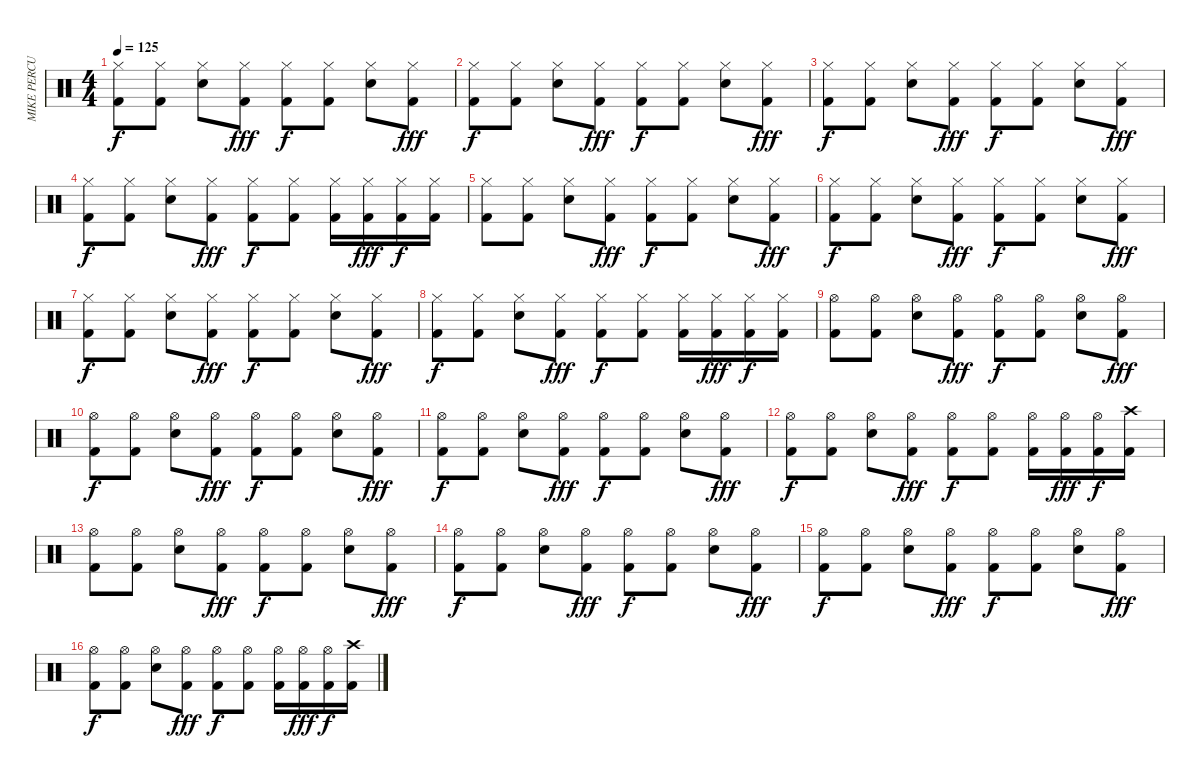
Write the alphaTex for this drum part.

\track ("MIKE PERCUSSIONS" "MIKE PERCU") {instrument percussion}
\staff {score}
\articulation defaults
\ts (4 4)
\tempo 125
\clef neutral
\ks c
("Hi-Hat (closed)" "Kick (hit) 2").8{dy f} ("Hi-Hat (closed)" "Kick (hit) 2").8 ("Hi-Hat (closed)" "Electric Snare (hit)").8 ("Hi-Hat (closed)" "Kick (hit) 2").8{dy fff} ("Hi-Hat (closed)" "Kick (hit) 2").8{dy f} ("Hi-Hat (closed)" "Kick (hit) 2").8 ("Hi-Hat (closed)" "Electric Snare (hit)").8 ("Hi-Hat (closed)" "Kick (hit) 2").8{dy fff} |
("Hi-Hat (closed)" "Kick (hit) 2").8{dy f} ("Hi-Hat (closed)" "Kick (hit) 2").8 ("Hi-Hat (closed)" "Electric Snare (hit)").8 ("Hi-Hat (closed)" "Kick (hit) 2").8{dy fff} ("Hi-Hat (closed)" "Kick (hit) 2").8{dy f} ("Hi-Hat (closed)" "Kick (hit) 2").8 ("Hi-Hat (closed)" "Electric Snare (hit)").8 ("Hi-Hat (closed)" "Kick (hit) 2").8{dy fff} |
("Hi-Hat (closed)" "Kick (hit) 2").8{dy f} ("Hi-Hat (closed)" "Kick (hit) 2").8 ("Hi-Hat (closed)" "Electric Snare (hit)").8 ("Hi-Hat (closed)" "Kick (hit) 2").8{dy fff} ("Hi-Hat (closed)" "Kick (hit) 2").8{dy f} ("Hi-Hat (closed)" "Kick (hit) 2").8 ("Hi-Hat (closed)" "Electric Snare (hit)").8 ("Hi-Hat (closed)" "Kick (hit) 2").8{dy fff} |
("Hi-Hat (closed)" "Kick (hit) 2").8{dy f} ("Hi-Hat (closed)" "Kick (hit) 2").8 ("Hi-Hat (closed)" "Electric Snare (hit)").8 ("Hi-Hat (closed)" "Kick (hit) 2").8{dy fff} ("Hi-Hat (closed)" "Kick (hit) 2").8{dy f} ("Hi-Hat (closed)" "Kick (hit) 2").8 ("Hi-Hat (closed)" "Kick (hit) 2").16 ("Hi-Hat (closed)" "Kick (hit) 2").16{dy fff} ("Hi-Hat (closed)" "Kick (hit) 2").16{dy f} ("Hi-Hat (closed)" "Kick (hit) 2").16 |
("Hi-Hat (closed)" "Kick (hit) 2").8 ("Hi-Hat (closed)" "Kick (hit) 2").8 ("Hi-Hat (closed)" "Electric Snare (hit)").8 ("Hi-Hat (closed)" "Kick (hit) 2").8{dy fff} ("Hi-Hat (closed)" "Kick (hit) 2").8{dy f} ("Hi-Hat (closed)" "Kick (hit) 2").8 ("Hi-Hat (closed)" "Electric Snare (hit)").8 ("Hi-Hat (closed)" "Kick (hit) 2").8{dy fff} |
("Hi-Hat (closed)" "Kick (hit) 2").8{dy f} ("Hi-Hat (closed)" "Kick (hit) 2").8 ("Hi-Hat (closed)" "Electric Snare (hit)").8 ("Hi-Hat (closed)" "Kick (hit) 2").8{dy fff} ("Hi-Hat (closed)" "Kick (hit) 2").8{dy f} ("Hi-Hat (closed)" "Kick (hit) 2").8 ("Hi-Hat (closed)" "Electric Snare (hit)").8 ("Hi-Hat (closed)" "Kick (hit) 2").8{dy fff} |
("Hi-Hat (closed)" "Kick (hit) 2").8{dy f} ("Hi-Hat (closed)" "Kick (hit) 2").8 ("Hi-Hat (closed)" "Electric Snare (hit)").8 ("Hi-Hat (closed)" "Kick (hit) 2").8{dy fff} ("Hi-Hat (closed)" "Kick (hit) 2").8{dy f} ("Hi-Hat (closed)" "Kick (hit) 2").8 ("Hi-Hat (closed)" "Electric Snare (hit)").8 ("Hi-Hat (closed)" "Kick (hit) 2").8{dy fff} |
("Hi-Hat (closed)" "Kick (hit) 2").8{dy f} ("Hi-Hat (closed)" "Kick (hit) 2").8 ("Hi-Hat (closed)" "Electric Snare (hit)").8 ("Hi-Hat (closed)" "Kick (hit) 2").8{dy fff} ("Hi-Hat (closed)" "Kick (hit) 2").8{dy f} ("Hi-Hat (closed)" "Kick (hit) 2").8 ("Hi-Hat (closed)" "Kick (hit) 2").16 ("Hi-Hat (closed)" "Kick (hit) 2").16{dy fff} ("Hi-Hat (closed)" "Kick (hit) 2").16{dy f} ("Hi-Hat (closed)" "Kick (hit) 2").16 |
("Hi-Hat (open)" "Kick (hit) 2").8 ("Hi-Hat (open)" "Kick (hit) 2").8 ("Hi-Hat (open)" "Electric Snare (hit)").8 ("Hi-Hat (open)" "Kick (hit) 2").8{dy fff} ("Hi-Hat (open)" "Kick (hit) 2").8{dy f} ("Hi-Hat (open)" "Kick (hit) 2").8 ("Hi-Hat (open)" "Electric Snare (hit)").8 ("Hi-Hat (open)" "Kick (hit) 2").8{dy fff} |
("Hi-Hat (open)" "Kick (hit) 2").8{dy f} ("Hi-Hat (open)" "Kick (hit) 2").8 ("Hi-Hat (open)" "Electric Snare (hit)").8 ("Hi-Hat (open)" "Kick (hit) 2").8{dy fff} ("Hi-Hat (open)" "Kick (hit) 2").8{dy f} ("Hi-Hat (open)" "Kick (hit) 2").8 ("Hi-Hat (open)" "Electric Snare (hit)").8 ("Hi-Hat (open)" "Kick (hit) 2").8{dy fff} |
("Hi-Hat (open)" "Kick (hit) 2").8{dy f} ("Hi-Hat (open)" "Kick (hit) 2").8 ("Hi-Hat (open)" "Electric Snare (hit)").8 ("Hi-Hat (open)" "Kick (hit) 2").8{dy fff} ("Hi-Hat (open)" "Kick (hit) 2").8{dy f} ("Hi-Hat (open)" "Kick (hit) 2").8 ("Hi-Hat (open)" "Electric Snare (hit)").8 ("Hi-Hat (open)" "Kick (hit) 2").8{dy fff} |
("Hi-Hat (open)" "Kick (hit) 2").8{dy f} ("Hi-Hat (open)" "Kick (hit) 2").8 ("Hi-Hat (open)" "Electric Snare (hit)").8 ("Hi-Hat (open)" "Kick (hit) 2").8{dy fff} ("Hi-Hat (open)" "Kick (hit) 2").8{dy f} ("Hi-Hat (open)" "Kick (hit) 2").8 ("Hi-Hat (open)" "Kick (hit) 2").16 ("Hi-Hat (open)" "Kick (hit) 2").16{dy fff} ("Hi-Hat (open)" "Kick (hit) 2").16{dy f} ("Crash high (hit)" "Kick (hit) 2").16 |
("Hi-Hat (open)" "Kick (hit) 2").8 ("Hi-Hat (open)" "Kick (hit) 2").8 ("Hi-Hat (open)" "Electric Snare (hit)").8 ("Hi-Hat (open)" "Kick (hit) 2").8{dy fff} ("Hi-Hat (open)" "Kick (hit) 2").8{dy f} ("Hi-Hat (open)" "Kick (hit) 2").8 ("Hi-Hat (open)" "Electric Snare (hit)").8 ("Hi-Hat (open)" "Kick (hit) 2").8{dy fff} |
("Hi-Hat (open)" "Kick (hit) 2").8{dy f} ("Hi-Hat (open)" "Kick (hit) 2").8 ("Hi-Hat (open)" "Electric Snare (hit)").8 ("Hi-Hat (open)" "Kick (hit) 2").8{dy fff} ("Hi-Hat (open)" "Kick (hit) 2").8{dy f} ("Hi-Hat (open)" "Kick (hit) 2").8 ("Hi-Hat (open)" "Electric Snare (hit)").8 ("Hi-Hat (open)" "Kick (hit) 2").8{dy fff} |
("Hi-Hat (open)" "Kick (hit) 2").8{dy f} ("Hi-Hat (open)" "Kick (hit) 2").8 ("Hi-Hat (open)" "Electric Snare (hit)").8 ("Hi-Hat (open)" "Kick (hit) 2").8{dy fff} ("Hi-Hat (open)" "Kick (hit) 2").8{dy f} ("Hi-Hat (open)" "Kick (hit) 2").8 ("Hi-Hat (open)" "Electric Snare (hit)").8 ("Hi-Hat (open)" "Kick (hit) 2").8{dy fff} |
("Hi-Hat (open)" "Kick (hit) 2").8{dy f} ("Hi-Hat (open)" "Kick (hit) 2").8 ("Hi-Hat (open)" "Electric Snare (hit)").8 ("Hi-Hat (open)" "Kick (hit) 2").8{dy fff} ("Hi-Hat (open)" "Kick (hit) 2").8{dy f} ("Hi-Hat (open)" "Kick (hit) 2").8 ("Hi-Hat (open)" "Kick (hit) 2").16 ("Hi-Hat (open)" "Kick (hit) 2").16{dy fff} ("Hi-Hat (open)" "Kick (hit) 2").16{dy f} ("Crash high (hit)" "Kick (hit) 2").16
